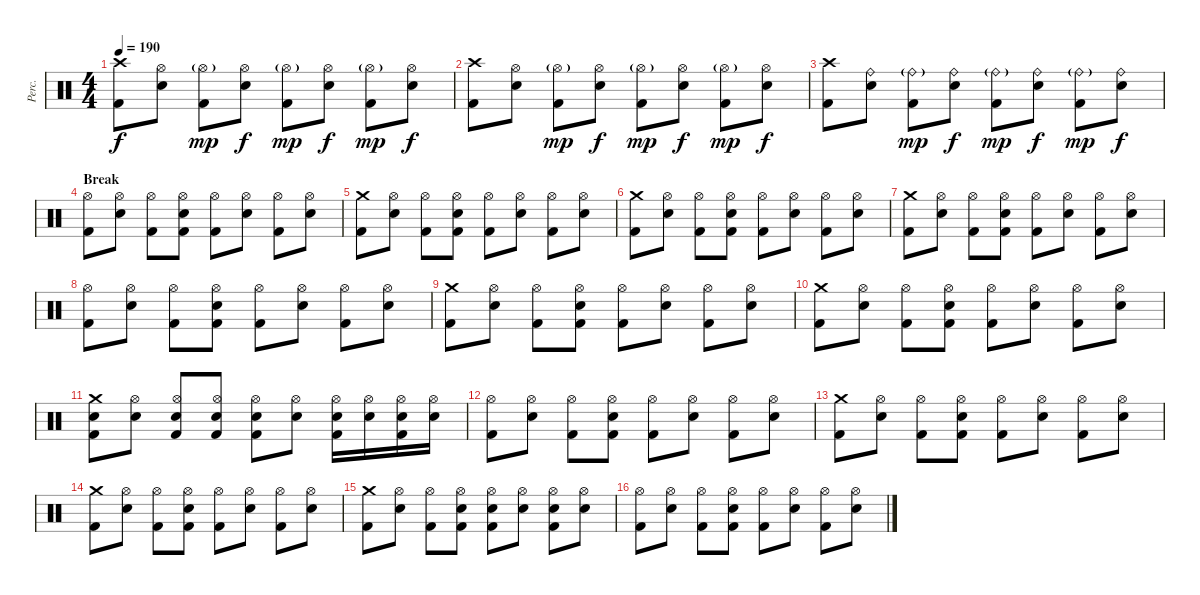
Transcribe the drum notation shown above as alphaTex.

\track ("Perc." "Perc.") {instrument percussion}
\staff {score}
\articulation defaults
\ts (4 4)
\tempo 190
\clef neutral
\ks c
("Crash high (hit)" "Kick (hit) 2").8{dy f} ("Hi-Hat (open)" "Snare (hit) 2").8 ("Hi-Hat (open)"{g} "Kick (hit) 2").8{dy mp} ("Hi-Hat (open)" "Snare (hit) 2").8{dy f} ("Hi-Hat (open)"{g} "Kick (hit) 2").8{dy mp} ("Hi-Hat (open)" "Snare (hit) 2").8{dy f} ("Hi-Hat (open)"{g} "Kick (hit) 2").8{dy mp} ("Hi-Hat (open)" "Snare (hit) 2").8{dy f} |
("Crash high (hit)" "Kick (hit) 2").8 ("Hi-Hat (open)" "Snare (hit) 2").8 ("Hi-Hat (open)"{g} "Kick (hit) 2").8{dy mp} ("Hi-Hat (open)" "Snare (hit) 2").8{dy f} ("Hi-Hat (open)"{g} "Kick (hit) 2").8{dy mp} ("Hi-Hat (open)" "Snare (hit) 2").8{dy f} ("Hi-Hat (open)"{g} "Kick (hit) 2").8{dy mp} ("Hi-Hat (open)" "Snare (hit) 2").8{dy f} |
("Crash high (hit)" "Kick (hit) 2").8 ("Ride (bell)" "Snare (hit) 2").8 ("Ride (bell)"{g} "Kick (hit) 2").8{dy mp} ("Ride (bell)" "Snare (hit) 2").8{dy f} ("Ride (bell)"{g} "Kick (hit) 2").8{dy mp} ("Ride (bell)" "Snare (hit) 2").8{dy f} ("Ride (bell)"{g} "Kick (hit) 2").8{dy mp} ("Ride (bell)" "Snare (hit) 2").8{dy f} |
\section ("" "Break")
("Hi-Hat (open)" "Kick (hit) 2").8 ("Hi-Hat (open)" "Snare (hit) 2").8 ("Hi-Hat (open)" "Kick (hit) 2").8 ("Hi-Hat (open)" "Snare (hit) 2" "Kick (hit) 2").8 ("Hi-Hat (open)" "Kick (hit) 2").8 ("Hi-Hat (open)" "Snare (hit) 2").8 ("Hi-Hat (open)" "Kick (hit) 2").8 ("Hi-Hat (open)" "Snare (hit) 2").8 |
("Crash medium (hit)" "Kick (hit) 2").8 ("Hi-Hat (open)" "Snare (hit) 2").8 ("Hi-Hat (open)" "Kick (hit) 2").8 ("Hi-Hat (open)" "Snare (hit) 2" "Kick (hit) 2").8 ("Hi-Hat (open)" "Kick (hit) 2").8 ("Hi-Hat (open)" "Snare (hit) 2").8 ("Hi-Hat (open)" "Kick (hit) 2").8 ("Hi-Hat (open)" "Snare (hit) 2").8 |
("Crash medium (hit)" "Kick (hit) 2").8 ("Hi-Hat (open)" "Snare (hit) 2").8 ("Hi-Hat (open)" "Kick (hit) 2").8 ("Hi-Hat (open)" "Snare (hit) 2" "Kick (hit) 2").8 ("Hi-Hat (open)" "Kick (hit) 2").8 ("Hi-Hat (open)" "Snare (hit) 2").8 ("Hi-Hat (open)" "Kick (hit) 2").8 ("Hi-Hat (open)" "Snare (hit) 2").8 |
("Crash medium (hit)" "Kick (hit) 2").8 ("Hi-Hat (open)" "Snare (hit) 2").8 ("Hi-Hat (open)" "Kick (hit) 2").8 ("Hi-Hat (open)" "Snare (hit) 2" "Kick (hit) 2").8 ("Hi-Hat (open)" "Kick (hit) 2").8 ("Hi-Hat (open)" "Snare (hit) 2").8 ("Hi-Hat (open)" "Kick (hit) 2").8 ("Hi-Hat (open)" "Snare (hit) 2").8 |
("Hi-Hat (open)" "Kick (hit) 2").8 ("Hi-Hat (open)" "Snare (hit) 2").8 ("Hi-Hat (open)" "Kick (hit) 2").8 ("Hi-Hat (open)" "Snare (hit) 2" "Kick (hit) 2").8 ("Hi-Hat (open)" "Kick (hit) 2").8 ("Hi-Hat (open)" "Snare (hit) 2").8 ("Hi-Hat (open)" "Kick (hit) 2").8 ("Hi-Hat (open)" "Snare (hit) 2").8 |
("Crash medium (hit)" "Kick (hit) 2").8 ("Hi-Hat (open)" "Snare (hit) 2").8 ("Hi-Hat (open)" "Kick (hit) 2").8 ("Hi-Hat (open)" "Snare (hit) 2" "Kick (hit) 2").8 ("Hi-Hat (open)" "Kick (hit) 2").8 ("Hi-Hat (open)" "Snare (hit) 2").8 ("Hi-Hat (open)" "Kick (hit) 2").8 ("Hi-Hat (open)" "Snare (hit) 2").8 |
("Crash medium (hit)" "Kick (hit) 2").8 ("Hi-Hat (open)" "Snare (hit) 2").8 ("Hi-Hat (open)" "Kick (hit) 2").8 ("Hi-Hat (open)" "Snare (hit) 2" "Kick (hit) 2").8 ("Hi-Hat (open)" "Kick (hit) 2").8 ("Hi-Hat (open)" "Snare (hit) 2").8 ("Hi-Hat (open)" "Kick (hit) 2").8 ("Hi-Hat (open)" "Snare (hit) 2").8 |
("Crash medium (hit)" "Snare (hit) 2" "Kick (hit) 2").8 ("Hi-Hat (open)" "Snare (hit) 2").8 ("Hi-Hat (open)" "Snare (hit) 2" "Kick (hit) 2").8 ("Hi-Hat (open)" "Snare (hit) 2" "Kick (hit) 2").8 ("Hi-Hat (open)" "Snare (hit) 2" "Kick (hit) 2").8 ("Hi-Hat (open)" "Snare (hit) 2").8 ("Hi-Hat (open)" "Snare (hit) 2" "Kick (hit) 2").16 ("Hi-Hat (open)" "Snare (hit) 2").16 ("Hi-Hat (open)" "Snare (hit) 2" "Kick (hit) 2").16 ("Hi-Hat (open)" "Snare (hit) 2").16 |
("Hi-Hat (open)" "Kick (hit) 2").8 ("Hi-Hat (open)" "Snare (hit) 2").8 ("Hi-Hat (open)" "Kick (hit) 2").8 ("Hi-Hat (open)" "Snare (hit) 2" "Kick (hit) 2").8 ("Hi-Hat (open)" "Kick (hit) 2").8 ("Hi-Hat (open)" "Snare (hit) 2").8 ("Hi-Hat (open)" "Kick (hit) 2").8 ("Hi-Hat (open)" "Snare (hit) 2").8 |
("Crash medium (hit)" "Kick (hit) 2").8 ("Hi-Hat (open)" "Snare (hit) 2").8 ("Hi-Hat (open)" "Kick (hit) 2").8 ("Hi-Hat (open)" "Snare (hit) 2" "Kick (hit) 2").8 ("Hi-Hat (open)" "Kick (hit) 2").8 ("Hi-Hat (open)" "Snare (hit) 2").8 ("Hi-Hat (open)" "Kick (hit) 2").8 ("Hi-Hat (open)" "Snare (hit) 2").8 |
("Crash medium (hit)" "Kick (hit) 2").8 ("Hi-Hat (open)" "Snare (hit) 2").8 ("Hi-Hat (open)" "Kick (hit) 2").8 ("Hi-Hat (open)" "Snare (hit) 2" "Kick (hit) 2").8 ("Hi-Hat (open)" "Kick (hit) 2").8 ("Hi-Hat (open)" "Snare (hit) 2").8 ("Hi-Hat (open)" "Kick (hit) 2").8 ("Hi-Hat (open)" "Snare (hit) 2").8 |
("Crash medium (hit)" "Kick (hit) 2").8 ("Hi-Hat (open)" "Snare (hit) 2").8 ("Hi-Hat (open)" "Kick (hit) 2").8 ("Hi-Hat (open)" "Snare (hit) 2" "Kick (hit) 2").8 ("Hi-Hat (open)" "Snare (hit) 2" "Kick (hit) 2").8 ("Hi-Hat (open)" "Snare (hit) 2").8 ("Hi-Hat (open)" "Snare (hit) 2" "Kick (hit) 2").8 ("Hi-Hat (open)" "Snare (hit) 2").8 |
("Hi-Hat (open)" "Kick (hit) 2").8 ("Hi-Hat (open)" "Snare (hit) 2").8 ("Hi-Hat (open)" "Kick (hit) 2").8 ("Hi-Hat (open)" "Snare (hit) 2" "Kick (hit) 2").8 ("Hi-Hat (open)" "Kick (hit) 2").8 ("Hi-Hat (open)" "Snare (hit) 2").8 ("Hi-Hat (open)" "Kick (hit) 2").8 ("Hi-Hat (open)" "Snare (hit) 2").8
